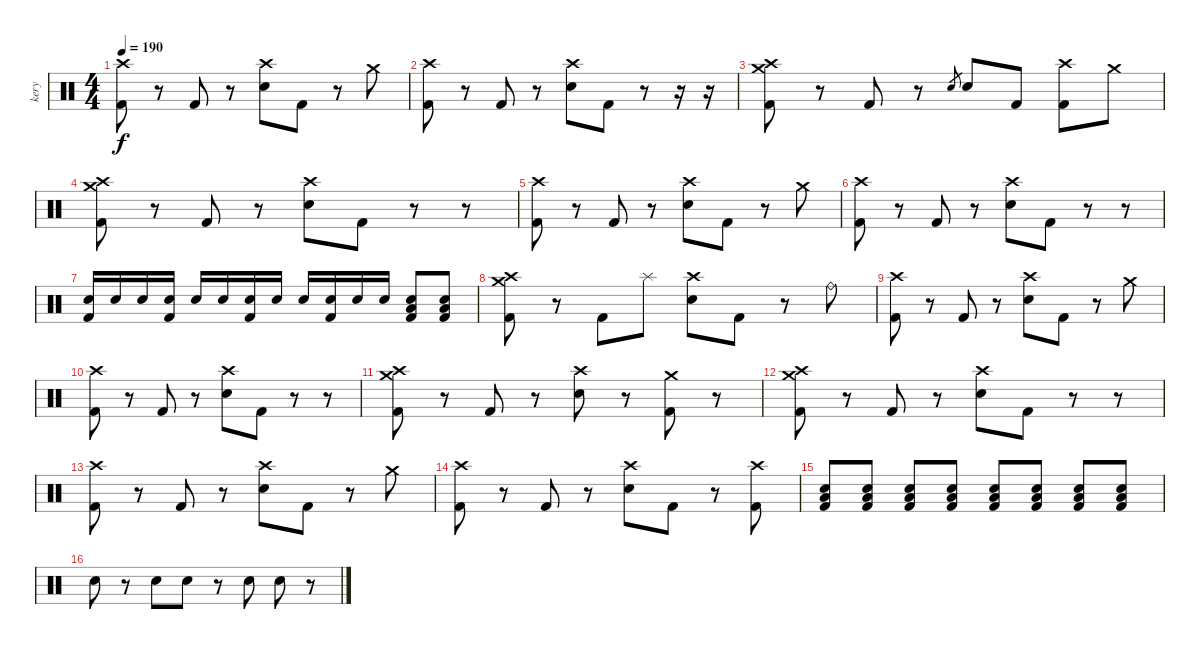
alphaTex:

\track ("kery" "kery") {instrument percussion}
\staff {score}
\articulation defaults
\ts (4 4)
\tempo 190
\clef neutral
\ks c
("Crash high (hit)" "Kick (hit) 2").8{dy f} r.8 "Kick (hit) 2".8 r.8 ("Crash high (hit)" "Electric Snare (hit)").8 "Kick (hit) 2".8 r.8 "Crash medium (hit)".8 |
("Crash high (hit)" "Kick (hit) 2").8 r.8 "Kick (hit) 2".8 r.8 ("Crash high (hit)" "Electric Snare (hit)").8 "Kick (hit) 2".8 r.8 r.16 r.16 |
("Crash high (hit)" "Crash medium (hit)" "Kick (hit) 2").8 r.8 "Kick (hit) 2".8 r.8 "Electric Snare (hit)".8{gr} "Electric Snare (hit)".8 "Kick (hit) 2".8 ("Crash high (hit)" "Kick (hit) 2").8 "Crash medium (hit)".8 |
("Crash high (hit)" "Crash medium (hit)" "Kick (hit) 2").8 r.8 "Kick (hit) 2".8 r.8 ("Crash high (hit)" "Electric Snare (hit)").8 "Kick (hit) 2".8 r.8 r.8 |
("Crash high (hit)" "Kick (hit) 2").8 r.8 "Kick (hit) 2".8 r.8 ("Crash high (hit)" "Electric Snare (hit)").8 "Kick (hit) 2".8 r.8 "Crash medium (hit)".8 |
("Crash high (hit)" "Kick (hit) 2").8 r.8 "Kick (hit) 2".8 r.8 ("Crash high (hit)" "Electric Snare (hit)").8 "Kick (hit) 2".8 r.8 r.8 |
("Kick (hit) 2" "Electric Snare (hit)").16 "Electric Snare (hit)".16 "Electric Snare (hit)".16 ("Kick (hit) 2" "Electric Snare (hit)").16 "Electric Snare (hit)".16 "Electric Snare (hit)".16 ("Kick (hit) 2" "Electric Snare (hit)").16 "Electric Snare (hit)".16 "Electric Snare (hit)".16 ("Kick (hit) 2" "Electric Snare (hit)").16 "Electric Snare (hit)".16 "Electric Snare (hit)".16 ("Kick (hit) 2" "Low Floor Tom (hit)" "Electric Snare (hit)").8 ("Kick (hit) 2" "Low Floor Tom (hit)" "Electric Snare (hit)").8 |
("Crash high (hit)" "Crash medium (hit)" "Kick (hit) 2").8 r.8 "Kick (hit) 2".8 "Splash (hit)".8 ("Crash high (hit)" "Electric Snare (hit)").8 "Kick (hit) 2".8 r.8 "Ride (bell)".8 |
("Crash high (hit)" "Kick (hit) 2").8 r.8 "Kick (hit) 2".8 r.8 ("Crash high (hit)" "Electric Snare (hit)").8 "Kick (hit) 2".8 r.8 "Crash medium (hit)".8 |
("Crash high (hit)" "Kick (hit) 2").8 r.8 "Kick (hit) 2".8 r.8 ("Crash high (hit)" "Electric Snare (hit)").8 "Kick (hit) 2".8 r.8 r.8 |
("Crash high (hit)" "Crash medium (hit)" "Kick (hit) 2").8 r.8 "Kick (hit) 2".8 r.8 ("Crash high (hit)" "Electric Snare (hit)").8 r.8 ("Crash medium (hit)" "Kick (hit) 2").8 r.8 |
("Crash high (hit)" "Crash medium (hit)" "Kick (hit) 2").8 r.8 "Kick (hit) 2".8 r.8 ("Crash high (hit)" "Electric Snare (hit)").8 "Kick (hit) 2".8 r.8 r.8 |
("Crash high (hit)" "Kick (hit) 2").8 r.8 "Kick (hit) 2".8 r.8 ("Crash high (hit)" "Electric Snare (hit)").8 "Kick (hit) 2".8 r.8 "Crash medium (hit)".8 |
("Crash high (hit)" "Kick (hit) 2").8 r.8 "Kick (hit) 2".8 r.8 ("Crash high (hit)" "Electric Snare (hit)").8 "Kick (hit) 2".8 r.8 ("Crash high (hit)" "Kick (hit) 2").8 |
("Kick (hit) 2" "Electric Snare (hit)" "Low Floor Tom (hit)").8 ("Kick (hit) 2" "Electric Snare (hit)" "Low Floor Tom (hit)").8 ("Kick (hit) 2" "Electric Snare (hit)" "Low Floor Tom (hit)").8 ("Kick (hit) 2" "Electric Snare (hit)" "Low Floor Tom (hit)").8 ("Kick (hit) 2" "Electric Snare (hit)" "Low Floor Tom (hit)").8 ("Kick (hit) 2" "Electric Snare (hit)" "Low Floor Tom (hit)").8 ("Kick (hit) 2" "Electric Snare (hit)" "Low Floor Tom (hit)").8 ("Kick (hit) 2" "Electric Snare (hit)" "Low Floor Tom (hit)").8 |
"Electric Snare (hit)".8 r.8 "Electric Snare (hit)".8 "Electric Snare (hit)".8 r.8 "Electric Snare (hit)".8 "Electric Snare (hit)".8 r.8
